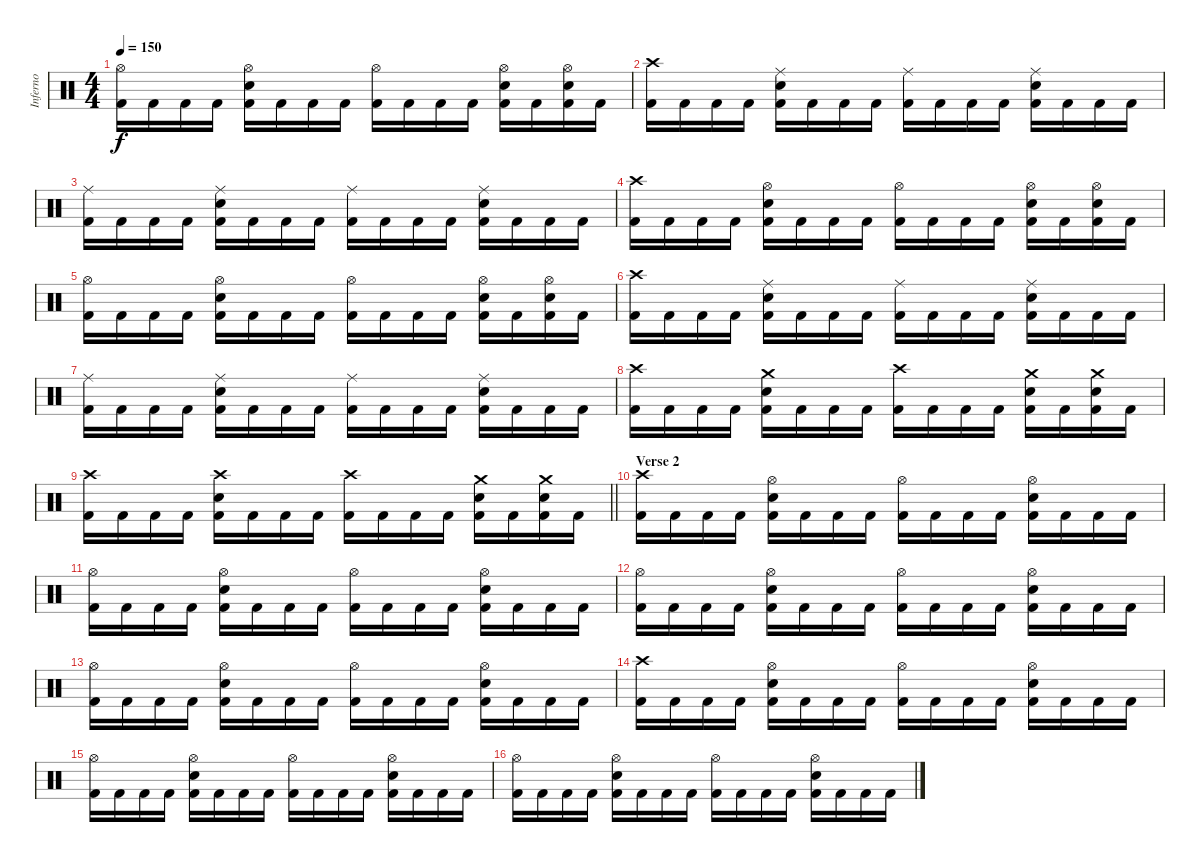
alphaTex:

\track ("Inferno" "Inferno") {instrument percussion}
\staff {score}
\articulation defaults
\ts (4 4)
\tempo 150
\clef neutral
\ks c
("Hi-Hat (open)" "Kick (hit) 2").16{dy f} "Kick (hit) 2".16 "Kick (hit) 2".16 "Kick (hit) 2".16 ("Hi-Hat (open)" "Electric Snare (hit)" "Kick (hit) 2").16 "Kick (hit) 2".16 "Kick (hit) 2".16 "Kick (hit) 2".16 ("Hi-Hat (open)" "Kick (hit) 2").16 "Kick (hit) 2".16 "Kick (hit) 2".16 "Kick (hit) 2".16 ("Hi-Hat (open)" "Electric Snare (hit)" "Kick (hit) 2").16 "Kick (hit) 2".16 ("Hi-Hat (open)" "Electric Snare (hit)" "Kick (hit) 2").16 "Kick (hit) 2".16 |
("Crash high (hit)" "Kick (hit) 2").16 "Kick (hit) 2".16 "Kick (hit) 2".16 "Kick (hit) 2".16 ("Ride (middle)" "Electric Snare (hit)" "Kick (hit) 2").16 "Kick (hit) 2".16 "Kick (hit) 2".16 "Kick (hit) 2".16 ("Ride (middle)" "Kick (hit) 2").16 "Kick (hit) 2".16 "Kick (hit) 2".16 "Kick (hit) 2".16 ("Ride (middle)" "Electric Snare (hit)" "Kick (hit) 2").16 "Kick (hit) 2".16 "Kick (hit) 2".16 "Kick (hit) 2".16 |
("Ride (middle)" "Kick (hit) 2").16 "Kick (hit) 2".16 "Kick (hit) 2".16 "Kick (hit) 2".16 ("Ride (middle)" "Electric Snare (hit)" "Kick (hit) 2").16 "Kick (hit) 2".16 "Kick (hit) 2".16 "Kick (hit) 2".16 ("Ride (middle)" "Kick (hit) 2").16 "Kick (hit) 2".16 "Kick (hit) 2".16 "Kick (hit) 2".16 ("Ride (middle)" "Electric Snare (hit)" "Kick (hit) 2").16 "Kick (hit) 2".16 "Kick (hit) 2".16 "Kick (hit) 2".16 |
("Crash high (hit)" "Kick (hit) 2").16 "Kick (hit) 2".16 "Kick (hit) 2".16 "Kick (hit) 2".16 ("Hi-Hat (open)" "Electric Snare (hit)" "Kick (hit) 2").16 "Kick (hit) 2".16 "Kick (hit) 2".16 "Kick (hit) 2".16 ("Hi-Hat (open)" "Kick (hit) 2").16 "Kick (hit) 2".16 "Kick (hit) 2".16 "Kick (hit) 2".16 ("Hi-Hat (open)" "Electric Snare (hit)" "Kick (hit) 2").16 "Kick (hit) 2".16 ("Hi-Hat (open)" "Electric Snare (hit)" "Kick (hit) 2").16 "Kick (hit) 2".16 |
("Hi-Hat (open)" "Kick (hit) 2").16 "Kick (hit) 2".16 "Kick (hit) 2".16 "Kick (hit) 2".16 ("Hi-Hat (open)" "Electric Snare (hit)" "Kick (hit) 2").16 "Kick (hit) 2".16 "Kick (hit) 2".16 "Kick (hit) 2".16 ("Hi-Hat (open)" "Kick (hit) 2").16 "Kick (hit) 2".16 "Kick (hit) 2".16 "Kick (hit) 2".16 ("Hi-Hat (open)" "Electric Snare (hit)" "Kick (hit) 2").16 "Kick (hit) 2".16 ("Hi-Hat (open)" "Electric Snare (hit)" "Kick (hit) 2").16 "Kick (hit) 2".16 |
("Crash high (hit)" "Kick (hit) 2").16 "Kick (hit) 2".16 "Kick (hit) 2".16 "Kick (hit) 2".16 ("Ride (middle)" "Electric Snare (hit)" "Kick (hit) 2").16 "Kick (hit) 2".16 "Kick (hit) 2".16 "Kick (hit) 2".16 ("Ride (middle)" "Kick (hit) 2").16 "Kick (hit) 2".16 "Kick (hit) 2".16 "Kick (hit) 2".16 ("Ride (middle)" "Electric Snare (hit)" "Kick (hit) 2").16 "Kick (hit) 2".16 "Kick (hit) 2".16 "Kick (hit) 2".16 |
("Ride (middle)" "Kick (hit) 2").16 "Kick (hit) 2".16 "Kick (hit) 2".16 "Kick (hit) 2".16 ("Ride (middle)" "Electric Snare (hit)" "Kick (hit) 2").16 "Kick (hit) 2".16 "Kick (hit) 2".16 "Kick (hit) 2".16 ("Ride (middle)" "Kick (hit) 2").16 "Kick (hit) 2".16 "Kick (hit) 2".16 "Kick (hit) 2".16 ("Ride (middle)" "Electric Snare (hit)" "Kick (hit) 2").16 "Kick (hit) 2".16 "Kick (hit) 2".16 "Kick (hit) 2".16 |
("Crash high (hit)" "Kick (hit) 2").16 "Kick (hit) 2".16 "Kick (hit) 2".16 "Kick (hit) 2".16 ("Crash medium (hit)" "Electric Snare (hit)" "Kick (hit) 2").16 "Kick (hit) 2".16 "Kick (hit) 2".16 "Kick (hit) 2".16 ("Crash high (hit)" "Kick (hit) 2").16 "Kick (hit) 2".16 "Kick (hit) 2".16 "Kick (hit) 2".16 ("Crash medium (hit)" "Electric Snare (hit)" "Kick (hit) 2").16 "Kick (hit) 2".16 ("Crash medium (hit)" "Electric Snare (hit)" "Kick (hit) 2").16 "Kick (hit) 2".16 |
\barLineRight lightlight
("Crash high (hit)" "Kick (hit) 2").16 "Kick (hit) 2".16 "Kick (hit) 2".16 "Kick (hit) 2".16 ("Crash high (hit)" "Electric Snare (hit)" "Kick (hit) 2").16 "Kick (hit) 2".16 "Kick (hit) 2".16 "Kick (hit) 2".16 ("Crash high (hit)" "Kick (hit) 2").16 "Kick (hit) 2".16 "Kick (hit) 2".16 "Kick (hit) 2".16 ("Crash medium (hit)" "Electric Snare (hit)" "Kick (hit) 2").16 "Kick (hit) 2".16 ("Crash medium (hit)" "Electric Snare (hit)" "Kick (hit) 2").16 "Kick (hit) 2".16 |
\section ("" "Verse 2")
("Crash high (hit)" "Kick (hit) 2").16 "Kick (hit) 2".16 "Kick (hit) 2".16 "Kick (hit) 2".16 ("Hi-Hat (open)" "Electric Snare (hit)" "Kick (hit) 2").16 "Kick (hit) 2".16 "Kick (hit) 2".16 "Kick (hit) 2".16 ("Hi-Hat (open)" "Kick (hit) 2").16 "Kick (hit) 2".16 "Kick (hit) 2".16 "Kick (hit) 2".16 ("Hi-Hat (open)" "Electric Snare (hit)" "Kick (hit) 2").16 "Kick (hit) 2".16 "Kick (hit) 2".16 "Kick (hit) 2".16 |
("Hi-Hat (open)" "Kick (hit) 2").16 "Kick (hit) 2".16 "Kick (hit) 2".16 "Kick (hit) 2".16 ("Hi-Hat (open)" "Electric Snare (hit)" "Kick (hit) 2").16 "Kick (hit) 2".16 "Kick (hit) 2".16 "Kick (hit) 2".16 ("Hi-Hat (open)" "Kick (hit) 2").16 "Kick (hit) 2".16 "Kick (hit) 2".16 "Kick (hit) 2".16 ("Hi-Hat (open)" "Electric Snare (hit)" "Kick (hit) 2").16 "Kick (hit) 2".16 "Kick (hit) 2".16 "Kick (hit) 2".16 |
("Hi-Hat (open)" "Kick (hit) 2").16 "Kick (hit) 2".16 "Kick (hit) 2".16 "Kick (hit) 2".16 ("Hi-Hat (open)" "Electric Snare (hit)" "Kick (hit) 2").16 "Kick (hit) 2".16 "Kick (hit) 2".16 "Kick (hit) 2".16 ("Hi-Hat (open)" "Kick (hit) 2").16 "Kick (hit) 2".16 "Kick (hit) 2".16 "Kick (hit) 2".16 ("Hi-Hat (open)" "Electric Snare (hit)" "Kick (hit) 2").16 "Kick (hit) 2".16 "Kick (hit) 2".16 "Kick (hit) 2".16 |
("Hi-Hat (open)" "Kick (hit) 2").16 "Kick (hit) 2".16 "Kick (hit) 2".16 "Kick (hit) 2".16 ("Hi-Hat (open)" "Electric Snare (hit)" "Kick (hit) 2").16 "Kick (hit) 2".16 "Kick (hit) 2".16 "Kick (hit) 2".16 ("Hi-Hat (open)" "Kick (hit) 2").16 "Kick (hit) 2".16 "Kick (hit) 2".16 "Kick (hit) 2".16 ("Hi-Hat (open)" "Electric Snare (hit)" "Kick (hit) 2").16 "Kick (hit) 2".16 "Kick (hit) 2".16 "Kick (hit) 2".16 |
("Crash high (hit)" "Kick (hit) 2").16 "Kick (hit) 2".16 "Kick (hit) 2".16 "Kick (hit) 2".16 ("Hi-Hat (open)" "Electric Snare (hit)" "Kick (hit) 2").16 "Kick (hit) 2".16 "Kick (hit) 2".16 "Kick (hit) 2".16 ("Hi-Hat (open)" "Kick (hit) 2").16 "Kick (hit) 2".16 "Kick (hit) 2".16 "Kick (hit) 2".16 ("Hi-Hat (open)" "Electric Snare (hit)" "Kick (hit) 2").16 "Kick (hit) 2".16 "Kick (hit) 2".16 "Kick (hit) 2".16 |
("Hi-Hat (open)" "Kick (hit) 2").16 "Kick (hit) 2".16 "Kick (hit) 2".16 "Kick (hit) 2".16 ("Hi-Hat (open)" "Electric Snare (hit)" "Kick (hit) 2").16 "Kick (hit) 2".16 "Kick (hit) 2".16 "Kick (hit) 2".16 ("Hi-Hat (open)" "Kick (hit) 2").16 "Kick (hit) 2".16 "Kick (hit) 2".16 "Kick (hit) 2".16 ("Hi-Hat (open)" "Electric Snare (hit)" "Kick (hit) 2").16 "Kick (hit) 2".16 "Kick (hit) 2".16 "Kick (hit) 2".16 |
("Hi-Hat (open)" "Kick (hit) 2").16 "Kick (hit) 2".16 "Kick (hit) 2".16 "Kick (hit) 2".16 ("Hi-Hat (open)" "Electric Snare (hit)" "Kick (hit) 2").16 "Kick (hit) 2".16 "Kick (hit) 2".16 "Kick (hit) 2".16 ("Hi-Hat (open)" "Kick (hit) 2").16 "Kick (hit) 2".16 "Kick (hit) 2".16 "Kick (hit) 2".16 ("Hi-Hat (open)" "Electric Snare (hit)" "Kick (hit) 2").16 "Kick (hit) 2".16 "Kick (hit) 2".16 "Kick (hit) 2".16
